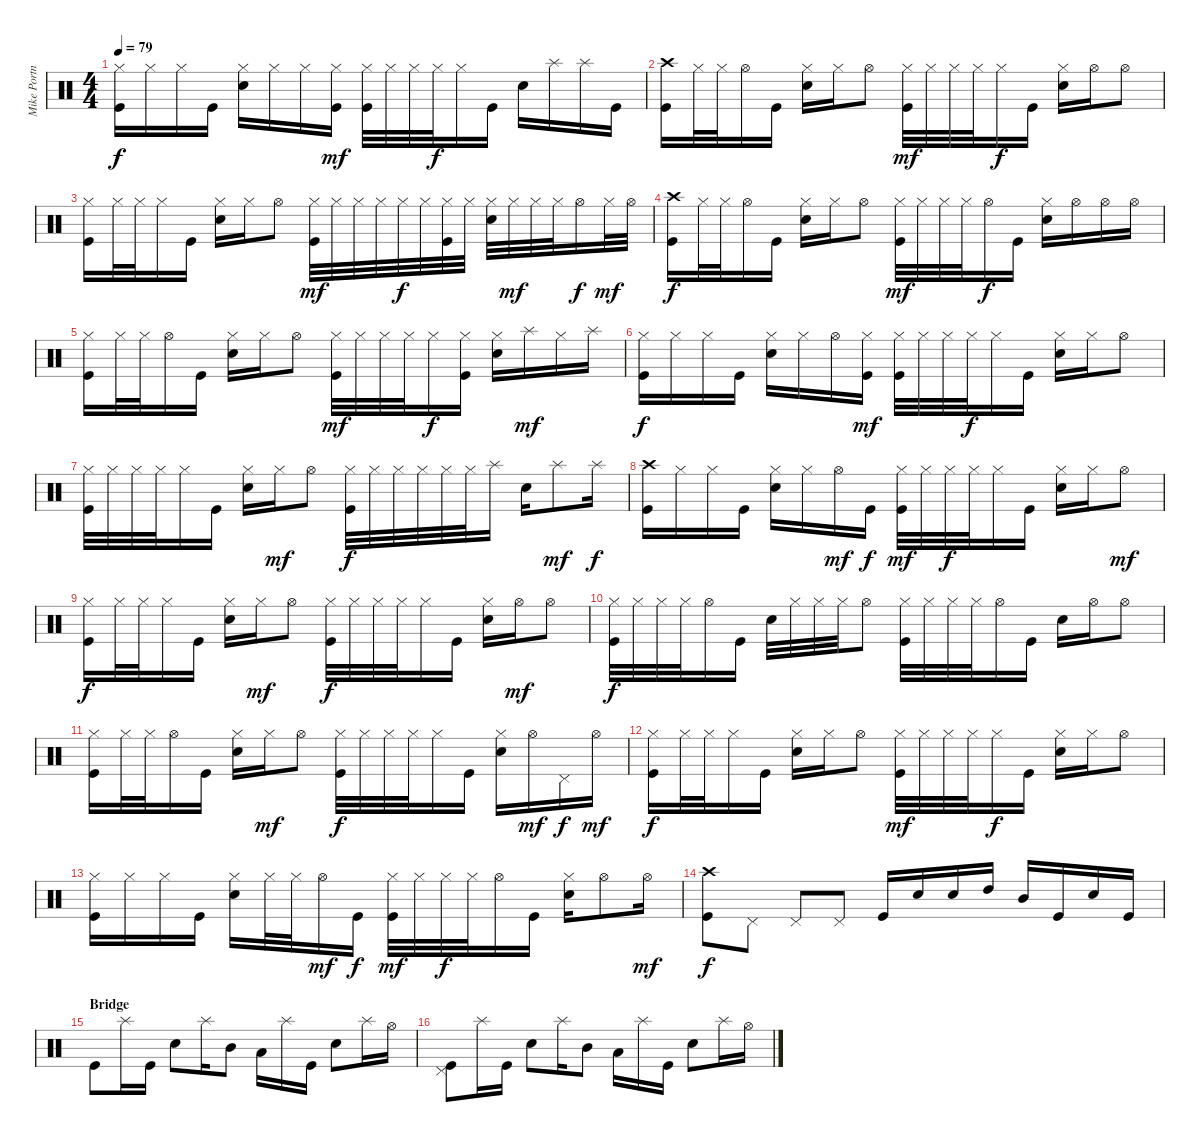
\track ("Mike Portnoy" "Mike Portn") {instrument percussion}
\staff {score}
\articulation defaults
\ts (4 4)
\tempo 79
\clef neutral
\ks c
("Hi-Hat (closed)" "Kick (hit)").16{dy f} "Hi-Hat (closed)".16 "Hi-Hat (closed)".16 "Kick (hit)".16 ("Hi-Hat (closed)" "Electric Snare (hit)").16 "Hi-Hat (closed)".16 "Hi-Hat (closed)".16 ("Hi-Hat (closed)" "Kick (hit)").16{dy mf} ("Hi-Hat (closed)" "Kick (hit)").32 "Hi-Hat (closed)".32 "Hi-Hat (closed)".32 "Hi-Hat (closed)".32{dy f} "Hi-Hat (closed)".16 "Kick (hit)".16 "Electric Snare (hit)".16 "Splash (hit)".16 "Splash (hit)".16 "Kick (hit)".16 |
("Crash high (hit)" "Kick (hit)").16 "Hi-Hat (closed)".32 "Hi-Hat (closed)".32 "Hi-Hat (open)".16 "Kick (hit)".16 ("Hi-Hat (closed)" "Electric Snare (hit)").16 "Hi-Hat (closed)".16 "Hi-Hat (open)".8 ("Hi-Hat (closed)" "Kick (hit)").32{dy mf} "Hi-Hat (closed)".32 "Hi-Hat (closed)".32 "Hi-Hat (closed)".32 "Hi-Hat (closed)".16{dy f} "Kick (hit)".16 ("Hi-Hat (closed)" "Electric Snare (hit)").16 "Hi-Hat (open)".16 "Hi-Hat (open)".8 |
("Hi-Hat (closed)" "Kick (hit)").16 "Hi-Hat (closed)".32 "Hi-Hat (closed)".32 "Hi-Hat (closed)".16 "Kick (hit)".16 ("Hi-Hat (closed)" "Electric Snare (hit)").16 "Hi-Hat (closed)".16 "Hi-Hat (open)".8 ("Hi-Hat (closed)" "Kick (hit)").32{dy mf} "Hi-Hat (closed)".32 "Hi-Hat (closed)".32 "Hi-Hat (closed)".32 "Hi-Hat (closed)".32{dy f} "Hi-Hat (closed)".32 ("Hi-Hat (closed)" "Kick (hit)").32 "Hi-Hat (closed)".32 ("Hi-Hat (closed)" "Electric Snare (hit)").32 "Hi-Hat (closed)".32{dy mf} "Hi-Hat (closed)".32 "Hi-Hat (closed)".32 "Hi-Hat (open)".16{dy f} "Hi-Hat (closed)".32{dy mf} "Hi-Hat (open)".32 |
("Crash high (hit)" "Kick (hit)").16{dy f} "Hi-Hat (closed)".32 "Hi-Hat (closed)".32 "Hi-Hat (open)".16 "Kick (hit)".16 ("Hi-Hat (closed)" "Electric Snare (hit)").16 "Hi-Hat (closed)".16 "Hi-Hat (open)".8 ("Hi-Hat (closed)" "Kick (hit)").32{dy mf} "Hi-Hat (closed)".32 "Hi-Hat (closed)".32 "Hi-Hat (closed)".32 "Hi-Hat (open)".16{dy f} "Kick (hit)".16 ("Hi-Hat (closed)" "Electric Snare (hit)").16 "Hi-Hat (open)".16 "Hi-Hat (open)".16 "Hi-Hat (open)".16 |
("Hi-Hat (closed)" "Kick (hit)").16 "Hi-Hat (closed)".32 "Hi-Hat (closed)".32 "Hi-Hat (open)".16 "Kick (hit)".16 ("Hi-Hat (closed)" "Electric Snare (hit)").16 "Hi-Hat (closed)".16 "Hi-Hat (open)".8 ("Hi-Hat (closed)" "Kick (hit)").32{dy mf} "Hi-Hat (closed)".32 "Hi-Hat (closed)".32 "Hi-Hat (closed)".32 "Hi-Hat (closed)".16{dy f} ("Hi-Hat (closed)" "Kick (hit)").16 ("Hi-Hat (closed)" "Electric Snare (hit)").16 "Splash (hit)".16{dy mf} "Hi-Hat (closed)".16 "Splash (hit)".16 |
("Hi-Hat (closed)" "Kick (hit)").16{dy f} "Hi-Hat (closed)".16 "Hi-Hat (closed)".16 "Kick (hit)".16 ("Hi-Hat (closed)" "Electric Snare (hit)").16 "Hi-Hat (closed)".16 "Hi-Hat (open)".16 ("Hi-Hat (closed)" "Kick (hit)").16{dy mf} ("Hi-Hat (closed)" "Kick (hit)").32 "Hi-Hat (closed)".32 "Hi-Hat (closed)".32 "Hi-Hat (closed)".32{dy f} "Hi-Hat (closed)".16 "Kick (hit)".16 ("Hi-Hat (closed)" "Electric Snare (hit)").16 "Hi-Hat (closed)".16 "Hi-Hat (open)".8 |
("Hi-Hat (closed)" "Kick (hit)").32 "Hi-Hat (closed)".32 "Hi-Hat (closed)".32 "Hi-Hat (closed)".32 "Hi-Hat (closed)".16 "Kick (hit)".16 ("Hi-Hat (closed)" "Electric Snare (hit)").16 "Hi-Hat (closed)".16{dy mf} "Hi-Hat (open)".8 ("Hi-Hat (closed)" "Kick (hit)").32{dy f} "Hi-Hat (closed)".32 "Hi-Hat (closed)".32 "Hi-Hat (closed)".32 "Hi-Hat (closed)".32 "Hi-Hat (closed)".32 "Splash (hit)".16 "Electric Snare (hit)".16 "Splash (hit)".8{dy mf} "Splash (hit)".16{dy f} |
("Crash high (hit)" "Kick (hit)").16 "Hi-Hat (closed)".16 "Hi-Hat (closed)".16 "Kick (hit)".16 ("Hi-Hat (closed)" "Electric Snare (hit)").16 "Hi-Hat (closed)".16 "Hi-Hat (open)".16{dy mf} "Kick (hit)".16{dy f} ("Hi-Hat (closed)" "Kick (hit)").32{dy mf} "Hi-Hat (closed)".32 "Hi-Hat (closed)".32{dy f} "Hi-Hat (closed)".32 "Hi-Hat (closed)".16 "Kick (hit)".16 ("Hi-Hat (closed)" "Electric Snare (hit)").16 "Hi-Hat (closed)".16 "Hi-Hat (open)".8{dy mf} |
("Hi-Hat (closed)" "Kick (hit)").16{dy f} "Hi-Hat (closed)".32 "Hi-Hat (closed)".32 "Hi-Hat (closed)".16 "Kick (hit)".16 ("Hi-Hat (closed)" "Electric Snare (hit)").16 "Hi-Hat (closed)".16{dy mf} "Hi-Hat (open)".8 ("Hi-Hat (closed)" "Kick (hit)").32{dy f} "Hi-Hat (closed)".32 "Hi-Hat (closed)".32 "Hi-Hat (closed)".32 "Hi-Hat (closed)".16 "Kick (hit)".16 ("Hi-Hat (closed)" "Electric Snare (hit)").16 "Hi-Hat (open)".16{dy mf} "Hi-Hat (open)".8 |
("Hi-Hat (closed)" "Kick (hit)").32{dy f} "Hi-Hat (closed)".32 "Hi-Hat (closed)".32 "Hi-Hat (closed)".32 "Hi-Hat (open)".16 "Kick (hit)".16 "Electric Snare (hit)".32 "Hi-Hat (closed)".32 "Hi-Hat (closed)".32 "Hi-Hat (closed)".32 "Hi-Hat (open)".8 ("Hi-Hat (closed)" "Kick (hit)").32 "Hi-Hat (closed)".32 "Hi-Hat (closed)".32 "Hi-Hat (closed)".32 "Hi-Hat (open)".16 "Kick (hit)".16 "Electric Snare (hit)".16 "Hi-Hat (open)".16 "Hi-Hat (open)".8 |
("Hi-Hat (closed)" "Kick (hit)").16 "Hi-Hat (closed)".32 "Hi-Hat (closed)".32 "Hi-Hat (open)".16 "Kick (hit)".16 ("Hi-Hat (closed)" "Electric Snare (hit)").16 "Hi-Hat (closed)".16{dy mf} "Hi-Hat (open)".8 ("Hi-Hat (closed)" "Kick (hit)").32{dy f} "Hi-Hat (closed)".32 "Hi-Hat (closed)".32 "Hi-Hat (closed)".32 "Hi-Hat (closed)".16 "Kick (hit)".16 ("Hi-Hat (closed)" "Electric Snare (hit)").16 "Hi-Hat (open)".16{dy mf} "Pedal Hi-Hat (hit)".16{dy f} "Hi-Hat (open)".16{dy mf} |
("Hi-Hat (closed)" "Kick (hit)").16{dy f} "Hi-Hat (closed)".32 "Hi-Hat (closed)".32 "Hi-Hat (closed)".16 "Kick (hit)".16 ("Hi-Hat (closed)" "Electric Snare (hit)").16 "Hi-Hat (closed)".16 "Hi-Hat (open)".8 ("Hi-Hat (closed)" "Kick (hit)").32{dy mf} "Hi-Hat (closed)".32 "Hi-Hat (closed)".32 "Hi-Hat (closed)".32 "Hi-Hat (closed)".16{dy f} "Kick (hit)".16 ("Hi-Hat (closed)" "Electric Snare (hit)").16 "Hi-Hat (closed)".16 "Hi-Hat (open)".8 |
("Hi-Hat (closed)" "Kick (hit)").16 "Hi-Hat (closed)".16 "Hi-Hat (closed)".16 "Kick (hit)".16 ("Hi-Hat (closed)" "Electric Snare (hit)").16 "Hi-Hat (closed)".32 "Hi-Hat (closed)".32 "Hi-Hat (open)".16{dy mf} "Kick (hit)".16{dy f} ("Hi-Hat (closed)" "Kick (hit)").32{dy mf} "Hi-Hat (closed)".32 "Hi-Hat (closed)".32{dy f} "Hi-Hat (closed)".32 "Hi-Hat (open)".16 "Kick (hit)".16 ("Hi-Hat (closed)" "Electric Snare (hit)").16 "Hi-Hat (open)".8 "Hi-Hat (open)".16{dy mf} |
("Crash high (hit)" "Kick (hit)").8{dy f} "Pedal Hi-Hat (hit)".8 "Pedal Hi-Hat (hit)".8 "Pedal Hi-Hat (hit)".8 "Kick (hit)".16 "Electric Snare (hit)".16 "Electric Snare (hit)".16 "High Tom (hit)".16 "Mid Tom (hit)".16 "Kick (hit)".16 "Electric Snare (hit)".16 "Kick (hit)".16 |
\section ("" "Bridge")
"Kick (hit)".8 "Splash (hit)".16 "Kick (hit)".16 "Electric Snare (hit)".8 "Splash (hit)".16 "Mid Tom (hit)".8 "Low Tom (hit)".16 "Splash (hit)".16 "Kick (hit)".16 "Electric Snare (hit)".8 "Splash (hit)".16 "Hi-Hat (open)".16 |
("Pedal Hi-Hat (hit)" "Kick (hit)").8 "Splash (hit)".16 "Kick (hit)".16 "Electric Snare (hit)".8 "Splash (hit)".16 "Mid Tom (hit)".8 "Low Tom (hit)".16 "Splash (hit)".16 "Kick (hit)".16 "Electric Snare (hit)".8 "Splash (hit)".16 "Hi-Hat (open)".16
